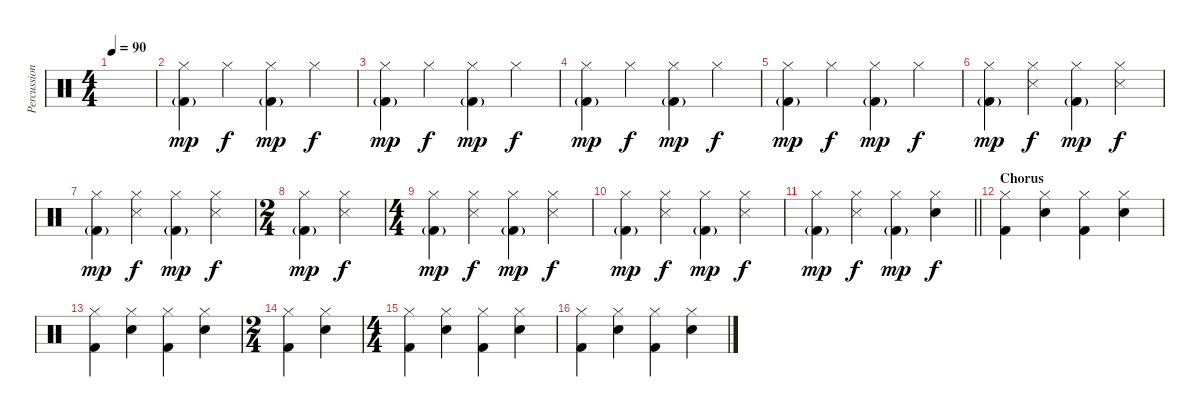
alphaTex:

\track ("Percussion" "Percussion") {instrument percussion}
\staff {score}
\articulation defaults
\ts (4 4)
\tempo 90
\clef neutral
\ks c
|
("Hi-Hat (closed)" "Kick (hit) 2"{g}).4{dy mp} "Hi-Hat (closed)".4{dy f} ("Hi-Hat (closed)" "Kick (hit) 2"{g}).4{dy mp} "Hi-Hat (closed)".4{dy f} |
("Hi-Hat (closed)" "Kick (hit) 2"{g}).4{dy mp} "Hi-Hat (closed)".4{dy f} ("Hi-Hat (closed)" "Kick (hit) 2"{g}).4{dy mp} "Hi-Hat (closed)".4{dy f} |
("Hi-Hat (closed)" "Kick (hit) 2"{g}).4{dy mp} "Hi-Hat (closed)".4{dy f} ("Hi-Hat (closed)" "Kick (hit) 2"{g}).4{dy mp} "Hi-Hat (closed)".4{dy f} |
("Hi-Hat (closed)" "Kick (hit) 2"{g}).4{dy mp} "Hi-Hat (closed)".4{dy f} ("Hi-Hat (closed)" "Kick (hit) 2"{g}).4{dy mp} "Hi-Hat (closed)".4{dy f} |
("Hi-Hat (closed)" "Kick (hit) 2"{g}).4{dy mp} ("Hi-Hat (closed)" "Snare (side stick) 3").4{dy f} ("Hi-Hat (closed)" "Kick (hit) 2"{g}).4{dy mp} ("Hi-Hat (closed)" "Snare (side stick) 3").4{dy f} |
("Hi-Hat (closed)" "Kick (hit) 2"{g}).4{dy mp} ("Hi-Hat (closed)" "Snare (side stick) 3").4{dy f} ("Hi-Hat (closed)" "Kick (hit) 2"{g}).4{dy mp} ("Hi-Hat (closed)" "Snare (side stick) 3").4{dy f} |
\ts (2 4)
("Hi-Hat (closed)" "Kick (hit) 2"{g}).4{dy mp} ("Hi-Hat (closed)" "Snare (side stick) 3").4{dy f} |
\ts (4 4)
("Hi-Hat (closed)" "Kick (hit) 2"{g}).4{dy mp} ("Hi-Hat (closed)" "Snare (side stick) 3").4{dy f} ("Hi-Hat (closed)" "Kick (hit) 2"{g}).4{dy mp} ("Hi-Hat (closed)" "Snare (side stick) 3").4{dy f} |
("Hi-Hat (closed)" "Kick (hit) 2"{g}).4{dy mp} ("Hi-Hat (closed)" "Snare (side stick) 3").4{dy f} ("Hi-Hat (closed)" "Kick (hit) 2"{g}).4{dy mp} ("Hi-Hat (closed)" "Snare (side stick) 3").4{dy f} |
\barLineRight lightlight
("Hi-Hat (closed)" "Kick (hit) 2"{g}).4{dy mp} ("Hi-Hat (closed)" "Snare (side stick) 3").4{dy f} ("Hi-Hat (closed)" "Kick (hit) 2"{g}).4{dy mp} ("Hi-Hat (closed)" "Snare (hit) 2").4{dy f} |
\section ("" "Chorus")
("Hi-Hat (closed)" "Kick (hit) 2").4 ("Hi-Hat (closed)" "Snare (hit) 2").4 ("Hi-Hat (closed)" "Kick (hit) 2").4 ("Hi-Hat (closed)" "Snare (hit) 2").4 |
("Hi-Hat (closed)" "Kick (hit) 2").4 ("Hi-Hat (closed)" "Snare (hit) 2").4 ("Hi-Hat (closed)" "Kick (hit) 2").4 ("Hi-Hat (closed)" "Snare (hit) 2").4 |
\ts (2 4)
("Hi-Hat (closed)" "Kick (hit) 2").4 ("Hi-Hat (closed)" "Snare (hit) 2").4 |
\ts (4 4)
("Hi-Hat (closed)" "Kick (hit) 2").4 ("Hi-Hat (closed)" "Snare (hit) 2").4 ("Hi-Hat (closed)" "Kick (hit) 2").4 ("Hi-Hat (closed)" "Snare (hit) 2").4 |
("Hi-Hat (closed)" "Kick (hit) 2").4 ("Hi-Hat (closed)" "Snare (hit) 2").4 ("Hi-Hat (closed)" "Kick (hit) 2").4 ("Hi-Hat (closed)" "Snare (hit) 2").4
